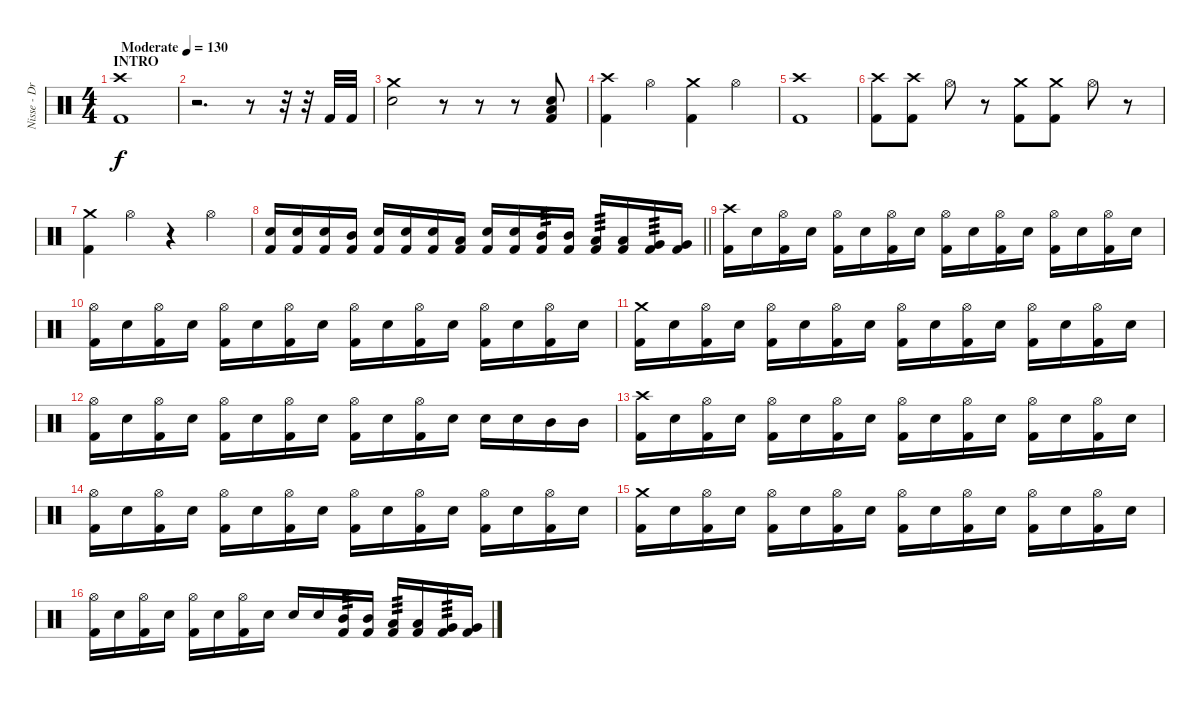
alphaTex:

\track ("Nisse - Drums" "Nisse - Dr") {instrument percussion}
\staff {score}
\articulation defaults
\ts (4 4)
\section ("" "INTRO")
\tempo (130 "Moderate")
\clef neutral
\ks c
("Crash high (hit)" "Kick (hit) 2").1{dy f} |
r.2{d} r.8 r.32 r.32 "Kick (hit) 2".32 "Kick (hit) 2".32 |
("Crash medium (hit)" "Electric Snare (hit)").2 r.8 r.8 r.8 ("Low Floor Tom (hit)" "Electric Snare (hit)" "Kick (hit) 2").8 |
("Crash high (hit)" "Kick (hit) 2").4 "Hi-Hat (open)".4 ("Crash medium (hit)" "Kick (hit) 2").4 "Hi-Hat (open)".4 |
("Crash high (hit)" "Kick (hit) 2").1 |
("Crash high (hit)" "Kick (hit) 2").8 ("Crash high (hit)" "Kick (hit) 2").8 "Hi-Hat (open)".8 r.8 ("Crash medium (hit)" "Kick (hit) 2").8 ("Crash medium (hit)" "Kick (hit) 2").8 "Hi-Hat (open)".8 r.8 |
("Crash medium (hit)" "Kick (hit) 2").4 "Hi-Hat (open)".4 r.4 "Hi-Hat (open)".4 |
\barLineRight lightlight
("Electric Snare (hit)" "Kick (hit) 2").16 ("Electric Snare (hit)" "Kick (hit) 2").16 ("Electric Snare (hit)" "Kick (hit) 2").16 ("Mid Tom (hit)" "Kick (hit) 2").16 ("Electric Snare (hit)" "Kick (hit) 2").16 ("Electric Snare (hit)" "Kick (hit) 2").16 ("Electric Snare (hit)" "Kick (hit) 2").16 ("Low Tom (hit)" "Kick (hit) 2").16 ("Electric Snare (hit)" "Kick (hit) 2").16 ("Electric Snare (hit)" "Kick (hit) 2").16 ("Mid Tom (hit)" "Kick (hit) 2").16{tp 3} ("Mid Tom (hit)" "Kick (hit) 2").16 ("Low Tom (hit)" "Kick (hit) 2").16{tp 3} ("Low Tom (hit)" "Kick (hit) 2").16 ("Very Low Tom (hit)" "Kick (hit) 2").16{tp 3} ("Very Low Tom (hit)" "Kick (hit) 2").16 |
("Crash high (hit)" "Kick (hit) 2").16 "Electric Snare (hit)".16 ("Hi-Hat (open)" "Kick (hit) 2").16 "Electric Snare (hit)".16 ("Hi-Hat (open)" "Kick (hit) 2").16 "Electric Snare (hit)".16 ("Hi-Hat (open)" "Kick (hit) 2").16 "Electric Snare (hit)".16 ("Hi-Hat (open)" "Kick (hit) 2").16 "Electric Snare (hit)".16 ("Hi-Hat (open)" "Kick (hit) 2").16 "Electric Snare (hit)".16 ("Hi-Hat (open)" "Kick (hit) 2").16 "Electric Snare (hit)".16 ("Hi-Hat (open)" "Kick (hit) 2").16 "Electric Snare (hit)".16 |
("Hi-Hat (open)" "Kick (hit) 2").16 "Electric Snare (hit)".16 ("Hi-Hat (open)" "Kick (hit) 2").16 "Electric Snare (hit)".16 ("Hi-Hat (open)" "Kick (hit) 2").16 "Electric Snare (hit)".16 ("Hi-Hat (open)" "Kick (hit) 2").16 "Electric Snare (hit)".16 ("Hi-Hat (open)" "Kick (hit) 2").16 "Electric Snare (hit)".16 ("Hi-Hat (open)" "Kick (hit) 2").16 "Electric Snare (hit)".16 ("Hi-Hat (open)" "Kick (hit) 2").16 "Electric Snare (hit)".16 ("Hi-Hat (open)" "Kick (hit) 2").16 "Electric Snare (hit)".16 |
("Crash medium (hit)" "Kick (hit) 2").16 "Electric Snare (hit)".16 ("Hi-Hat (open)" "Kick (hit) 2").16 "Electric Snare (hit)".16 ("Hi-Hat (open)" "Kick (hit) 2").16 "Electric Snare (hit)".16 ("Hi-Hat (open)" "Kick (hit) 2").16 "Electric Snare (hit)".16 ("Hi-Hat (open)" "Kick (hit) 2").16 "Electric Snare (hit)".16 ("Hi-Hat (open)" "Kick (hit) 2").16 "Electric Snare (hit)".16 ("Hi-Hat (open)" "Kick (hit) 2").16 "Electric Snare (hit)".16 ("Hi-Hat (open)" "Kick (hit) 2").16 "Electric Snare (hit)".16 |
("Hi-Hat (open)" "Kick (hit) 2").16 "Electric Snare (hit)".16 ("Hi-Hat (open)" "Kick (hit) 2").16 "Electric Snare (hit)".16 ("Hi-Hat (open)" "Kick (hit) 2").16 "Electric Snare (hit)".16 ("Hi-Hat (open)" "Kick (hit) 2").16 "Electric Snare (hit)".16 ("Hi-Hat (open)" "Kick (hit) 2").16 "Electric Snare (hit)".16 ("Hi-Hat (open)" "Kick (hit) 2").16 "Electric Snare (hit)".16 "Electric Snare (hit)".16 "Electric Snare (hit)".16 "Mid Tom (hit)".16 "Mid Tom (hit)".16 |
("Crash high (hit)" "Kick (hit) 2").16 "Electric Snare (hit)".16 ("Hi-Hat (open)" "Kick (hit) 2").16 "Electric Snare (hit)".16 ("Hi-Hat (open)" "Kick (hit) 2").16 "Electric Snare (hit)".16 ("Hi-Hat (open)" "Kick (hit) 2").16 "Electric Snare (hit)".16 ("Hi-Hat (open)" "Kick (hit) 2").16 "Electric Snare (hit)".16 ("Hi-Hat (open)" "Kick (hit) 2").16 "Electric Snare (hit)".16 ("Hi-Hat (open)" "Kick (hit) 2").16 "Electric Snare (hit)".16 ("Hi-Hat (open)" "Kick (hit) 2").16 "Electric Snare (hit)".16 |
("Hi-Hat (open)" "Kick (hit) 2").16 "Electric Snare (hit)".16 ("Hi-Hat (open)" "Kick (hit) 2").16 "Electric Snare (hit)".16 ("Hi-Hat (open)" "Kick (hit) 2").16 "Electric Snare (hit)".16 ("Hi-Hat (open)" "Kick (hit) 2").16 "Electric Snare (hit)".16 ("Hi-Hat (open)" "Kick (hit) 2").16 "Electric Snare (hit)".16 ("Hi-Hat (open)" "Kick (hit) 2").16 "Electric Snare (hit)".16 ("Hi-Hat (open)" "Kick (hit) 2").16 "Electric Snare (hit)".16 ("Hi-Hat (open)" "Kick (hit) 2").16 "Electric Snare (hit)".16 |
("Crash medium (hit)" "Kick (hit) 2").16 "Electric Snare (hit)".16 ("Hi-Hat (open)" "Kick (hit) 2").16 "Electric Snare (hit)".16 ("Hi-Hat (open)" "Kick (hit) 2").16 "Electric Snare (hit)".16 ("Hi-Hat (open)" "Kick (hit) 2").16 "Electric Snare (hit)".16 ("Hi-Hat (open)" "Kick (hit) 2").16 "Electric Snare (hit)".16 ("Hi-Hat (open)" "Kick (hit) 2").16 "Electric Snare (hit)".16 ("Hi-Hat (open)" "Kick (hit) 2").16 "Electric Snare (hit)".16 ("Hi-Hat (open)" "Kick (hit) 2").16 "Electric Snare (hit)".16 |
("Hi-Hat (open)" "Kick (hit) 2").16 "Electric Snare (hit)".16 ("Hi-Hat (open)" "Kick (hit) 2").16 "Electric Snare (hit)".16 ("Hi-Hat (open)" "Kick (hit) 2").16 "Electric Snare (hit)".16 ("Hi-Hat (open)" "Kick (hit) 2").16 "Electric Snare (hit)".16 "Electric Snare (hit)".16 "Electric Snare (hit)".16 ("Mid Tom (hit)" "Kick (hit) 2").16{tp 3} ("Mid Tom (hit)" "Kick (hit) 2").16 ("Low Tom (hit)" "Kick (hit) 2").16{tp 3} ("Low Tom (hit)" "Kick (hit) 2").16 ("Very Low Tom (hit)" "Kick (hit) 2").16{tp 3} ("Very Low Tom (hit)" "Kick (hit) 2").16
